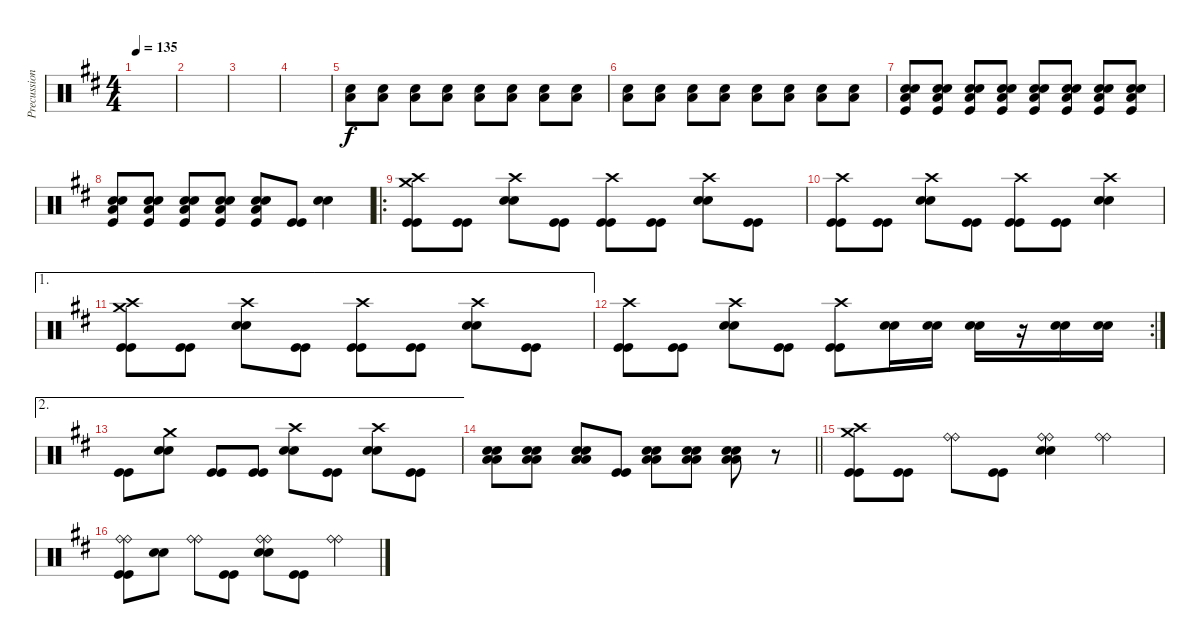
\track ("Precussion" "Precussion") {instrument percussion}
\staff {score}
\articulation defaults
\ts (4 4)
\tempo 135
\clef neutral
\ks d
|
|
|
|
("Electric Snare (hit)" "Low Floor Tom (hit)").8 ("Electric Snare (hit)" "Low Floor Tom (hit)").8 ("Electric Snare (hit)" "Low Floor Tom (hit)").8 ("Electric Snare (hit)" "Low Floor Tom (hit)").8 ("Electric Snare (hit)" "Low Floor Tom (hit)").8 ("Electric Snare (hit)" "Low Floor Tom (hit)").8 ("Electric Snare (hit)" "Low Floor Tom (hit)").8 ("Electric Snare (hit)" "Low Floor Tom (hit)").8 |
("Electric Snare (hit)" "Low Floor Tom (hit)").8 ("Electric Snare (hit)" "Low Floor Tom (hit)").8 ("Electric Snare (hit)" "Low Floor Tom (hit)").8 ("Electric Snare (hit)" "Low Floor Tom (hit)").8 ("Electric Snare (hit)" "Low Floor Tom (hit)").8 ("Electric Snare (hit)" "Low Floor Tom (hit)").8 ("Electric Snare (hit)" "Low Floor Tom (hit)").8 ("Electric Snare (hit)" "Low Floor Tom (hit)").8 |
("Electric Snare (hit)" "Electric Snare (hit)" "Low Floor Tom (hit)" "Kick (hit)").8 ("Electric Snare (hit)" "Electric Snare (hit)" "Low Floor Tom (hit)" "Kick (hit)").8 ("Electric Snare (hit)" "Electric Snare (hit)" "Low Floor Tom (hit)" "Kick (hit)").8 ("Electric Snare (hit)" "Electric Snare (hit)" "Low Floor Tom (hit)" "Kick (hit)").8 ("Electric Snare (hit)" "Electric Snare (hit)" "Low Floor Tom (hit)" "Kick (hit)").8 ("Electric Snare (hit)" "Electric Snare (hit)" "Low Floor Tom (hit)" "Kick (hit)").8 ("Electric Snare (hit)" "Electric Snare (hit)" "Low Floor Tom (hit)" "Kick (hit)").8 ("Electric Snare (hit)" "Electric Snare (hit)" "Low Floor Tom (hit)" "Kick (hit)").8 |
("Electric Snare (hit)" "Electric Snare (hit)" "Low Floor Tom (hit)" "Kick (hit)").8 ("Electric Snare (hit)" "Electric Snare (hit)" "Low Floor Tom (hit)" "Kick (hit)").8 ("Electric Snare (hit)" "Electric Snare (hit)" "Low Floor Tom (hit)" "Kick (hit)").8 ("Electric Snare (hit)" "Electric Snare (hit)" "Low Floor Tom (hit)" "Kick (hit)").8 ("Electric Snare (hit)" "Electric Snare (hit)" "Low Floor Tom (hit)" "Kick (hit)").8 ("Kick (hit)" "Kick (hit)").8 ("Electric Snare (hit)" "Electric Snare (hit)").4 |
\ro
("Crash high (hit)" "Crash medium (hit)" "Kick (hit)" "Kick (hit)").8 ("Kick (hit)" "Kick (hit)").8 ("Crash high (hit)" "Electric Snare (hit)" "Electric Snare (hit)").8 ("Kick (hit)" "Kick (hit)").8 ("Crash high (hit)" "Kick (hit)" "Kick (hit)").8 ("Kick (hit)" "Kick (hit)").8 ("Crash high (hit)" "Electric Snare (hit)" "Electric Snare (hit)").8 ("Kick (hit)" "Kick (hit)").8 |
("Crash high (hit)" "Kick (hit)" "Kick (hit)").8 ("Kick (hit)" "Kick (hit)").8 ("Crash high (hit)" "Electric Snare (hit)" "Electric Snare (hit)").8 ("Kick (hit)" "Kick (hit)").8 ("Crash high (hit)" "Kick (hit)" "Kick (hit)").8 ("Kick (hit)" "Kick (hit)").8 ("Crash high (hit)" "Electric Snare (hit)" "Electric Snare (hit)").4 |
\ae 1
("Crash high (hit)" "Crash medium (hit)" "Kick (hit)" "Kick (hit)").8 ("Kick (hit)" "Kick (hit)").8 ("Crash high (hit)" "Electric Snare (hit)" "Electric Snare (hit)").8 ("Kick (hit)" "Kick (hit)").8 ("Crash high (hit)" "Kick (hit)" "Kick (hit)").8 ("Kick (hit)" "Kick (hit)").8 ("Crash high (hit)" "Electric Snare (hit)" "Electric Snare (hit)").8 ("Kick (hit)" "Kick (hit)").8 |
\rc 2
("Crash high (hit)" "Kick (hit)" "Kick (hit)").8 ("Kick (hit)" "Kick (hit)").8 ("Crash high (hit)" "Electric Snare (hit)" "Electric Snare (hit)").8 ("Kick (hit)" "Kick (hit)").8 ("Crash high (hit)" "Kick (hit)" "Kick (hit)").8 ("Electric Snare (hit)" "Electric Snare (hit)").16 ("Electric Snare (hit)" "Electric Snare (hit)").16 ("Electric Snare (hit)" "Electric Snare (hit)").16 r.16 ("Electric Snare (hit)" "Electric Snare (hit)").16 ("Electric Snare (hit)" "Electric Snare (hit)").16 |
\ae 2
("Kick (hit)" "Kick (hit)").8 ("Crash medium (hit)" "Electric Snare (hit)" "Electric Snare (hit)").8 ("Kick (hit)" "Kick (hit)").8 ("Kick (hit)" "Kick (hit)").8 ("Crash high (hit)" "Electric Snare (hit)" "Electric Snare (hit)").8 ("Kick (hit)" "Kick (hit)").8 ("Crash high (hit)" "Electric Snare (hit)" "Electric Snare (hit)").8 ("Kick (hit)" "Kick (hit)").8 |
\barLineRight lightlight
("Electric Snare (hit)" "Electric Snare (hit)" "Low Floor Tom (hit)" "Low Floor Tom (hit)").8 ("Electric Snare (hit)" "Electric Snare (hit)" "Low Floor Tom (hit)" "Low Floor Tom (hit)").8 ("Electric Snare (hit)" "Electric Snare (hit)" "Low Floor Tom (hit)" "Low Floor Tom (hit)").8 ("Kick (hit)" "Kick (hit)").8 ("Electric Snare (hit)" "Electric Snare (hit)" "Low Tom (hit)" "Low Tom (hit)").8 ("Electric Snare (hit)" "Electric Snare (hit)" "Low Tom (hit)" "Low Tom (hit)").8 ("Electric Snare (hit)" "Electric Snare (hit)" "Low Tom (hit)" "Low Tom (hit)").8 r.8 |
("Crash high (hit)" "Crash medium (hit)" "Kick (hit)" "Kick (hit)").8 ("Kick (hit)" "Kick (hit)").8 ("Ride (bell)" "Ride (bell)").8 ("Kick (hit)" "Kick (hit)").8 ("Ride (bell)" "Ride (bell)" "Electric Snare (hit)" "Electric Snare (hit)").4 ("Ride (bell)" "Ride (bell)").4 |
("Ride (bell)" "Ride (bell)" "Kick (hit)" "Kick (hit)").8 ("Electric Snare (hit)" "Electric Snare (hit)").8 ("Ride (bell)" "Ride (bell)").8 ("Kick (hit)" "Kick (hit)").8 ("Ride (bell)" "Ride (bell)" "Electric Snare (hit)" "Electric Snare (hit)").8 ("Kick (hit)" "Kick (hit)").8 ("Ride (bell)" "Ride (bell)").4
